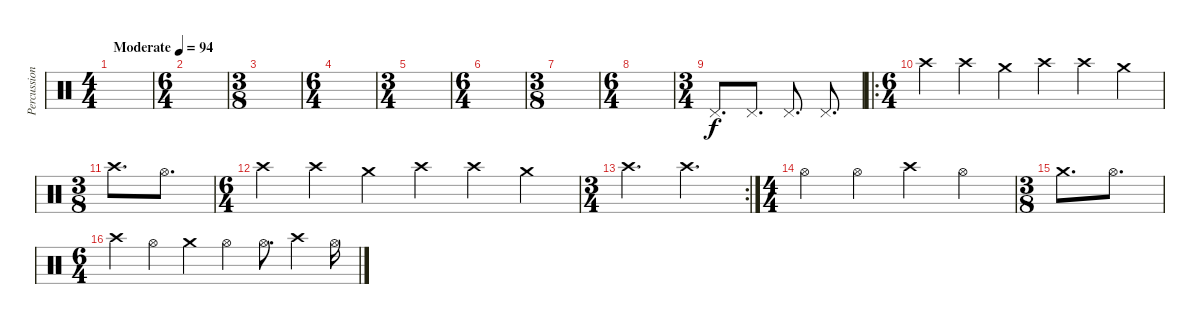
\track ("Percussion" "Percussion") {instrument percussion}
\staff {score}
\articulation defaults
\ts (4 4)
\tempo (94 "Moderate")
\clef neutral
\ks c
|
\ts (6 4)
|
\ts (3 8)
|
\ts (6 4)
|
\ts (3 4)
|
\ts (6 4)
|
\ts (3 8)
|
\ts (6 4)
|
\ts (3 4)
"Pedal Hi-Hat (hit)".8{d} "Pedal Hi-Hat (hit)".8{d} "Pedal Hi-Hat (hit)".8{d} "Pedal Hi-Hat (hit)".8{d} |
\ro
\ts (6 4)
"Crash high (hit)".4 "Crash high (hit)".4 "Crash medium (hit)".4 "Crash high (hit)".4 "Crash high (hit)".4 "Crash medium (hit)".4 |
\ts (3 8)
"Crash high (hit)".8{d} "Hi-Hat (open)".8{d} |
\ts (6 4)
"Crash high (hit)".4 "Crash high (hit)".4 "Crash medium (hit)".4 "Crash high (hit)".4 "Crash high (hit)".4 "Crash medium (hit)".4 |
\rc 2
\ts (3 4)
"Crash high (hit)".4{d} "Crash high (hit)".4{d} |
\ts (4 4)
"Hi-Hat (open)".4 "Hi-Hat (open)".4 "Crash high (hit)".4 "Hi-Hat (open)".4 |
\ts (3 8)
"Crash medium (hit)".8{d} "Hi-Hat (open)".8{d} |
\ts (6 4)
"Crash high (hit)".4 "Hi-Hat (open)".4 "Crash medium (hit)".4 "Hi-Hat (open)".4 "Hi-Hat (open)".8{d} "Crash high (hit)".4 "Hi-Hat (open)".16
